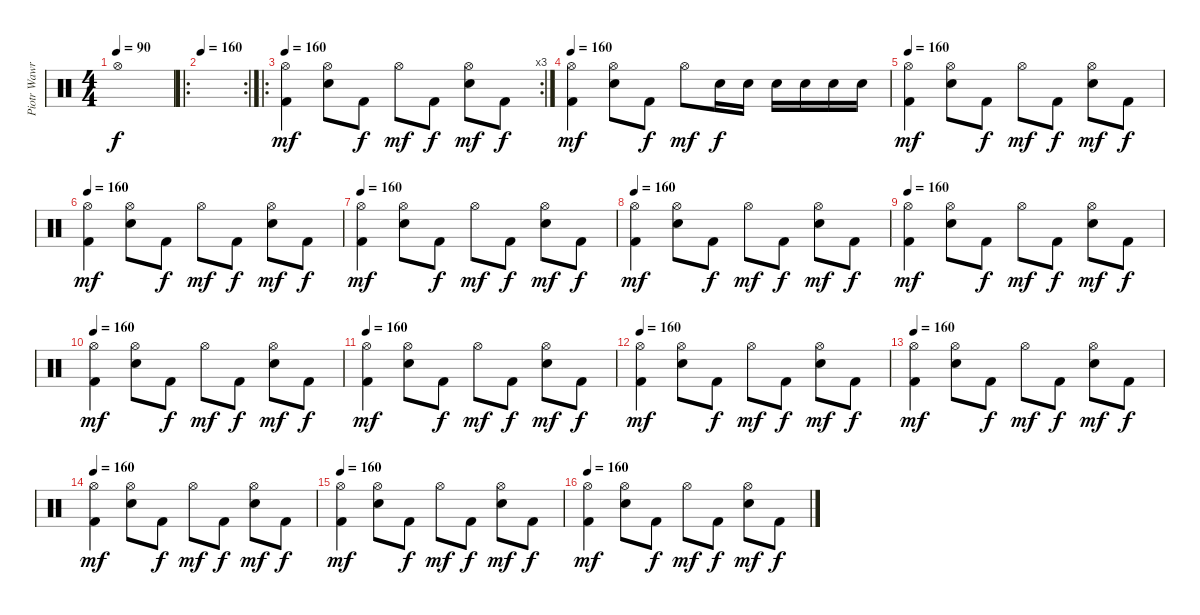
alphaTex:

\track ("Piotr Wawrzeniunk (drums)" "Piotr Wawr") {instrument percussion}
\staff {score}
\articulation defaults
\ts (4 4)
\tempo 90
\clef neutral
\ks c "Hi-Hat (open)".1{dy f}
|
\ro
\rc 2
\tempo 160
|
\ro
\rc 3
\tempo 160
("Kick (hit) 2" "Hi-Hat (open)").4{dy mf} ("Electric Snare (hit)" "Hi-Hat (open)").8 "Kick (hit) 2".8{dy f} "Hi-Hat (open)".8{dy mf} "Kick (hit) 2".8{dy f} ("Electric Snare (hit)" "Hi-Hat (open)").8{dy mf} "Kick (hit) 2".8{dy f} |
\tempo 160
("Kick (hit) 2" "Hi-Hat (open)").4{dy mf} ("Electric Snare (hit)" "Hi-Hat (open)").8 "Kick (hit) 2".8{dy f} "Hi-Hat (open)".8{dy mf} "Electric Snare (hit)".16{dy f} "Electric Snare (hit)".16 "Electric Snare (hit)".16 "Electric Snare (hit)".16 "Electric Snare (hit)".16 "Electric Snare (hit)".16 |
\tempo 160
("Kick (hit) 2" "Hi-Hat (open)").4{dy mf} ("Electric Snare (hit)" "Hi-Hat (open)").8 "Kick (hit) 2".8{dy f} "Hi-Hat (open)".8{dy mf} "Kick (hit) 2".8{dy f} ("Electric Snare (hit)" "Hi-Hat (open)").8{dy mf} "Kick (hit) 2".8{dy f} |
\tempo 160
("Kick (hit) 2" "Hi-Hat (open)").4{dy mf} ("Electric Snare (hit)" "Hi-Hat (open)").8 "Kick (hit) 2".8{dy f} "Hi-Hat (open)".8{dy mf} "Kick (hit) 2".8{dy f} ("Electric Snare (hit)" "Hi-Hat (open)").8{dy mf} "Kick (hit) 2".8{dy f} |
\tempo 160
("Kick (hit) 2" "Hi-Hat (open)").4{dy mf} ("Electric Snare (hit)" "Hi-Hat (open)").8 "Kick (hit) 2".8{dy f} "Hi-Hat (open)".8{dy mf} "Kick (hit) 2".8{dy f} ("Electric Snare (hit)" "Hi-Hat (open)").8{dy mf} "Kick (hit) 2".8{dy f} |
\tempo 160
("Kick (hit) 2" "Hi-Hat (open)").4{dy mf} ("Electric Snare (hit)" "Hi-Hat (open)").8 "Kick (hit) 2".8{dy f} "Hi-Hat (open)".8{dy mf} "Kick (hit) 2".8{dy f} ("Electric Snare (hit)" "Hi-Hat (open)").8{dy mf} "Kick (hit) 2".8{dy f} |
\tempo 160
("Kick (hit) 2" "Hi-Hat (open)").4{dy mf} ("Electric Snare (hit)" "Hi-Hat (open)").8 "Kick (hit) 2".8{dy f} "Hi-Hat (open)".8{dy mf} "Kick (hit) 2".8{dy f} ("Electric Snare (hit)" "Hi-Hat (open)").8{dy mf} "Kick (hit) 2".8{dy f} |
\tempo 160
("Kick (hit) 2" "Hi-Hat (open)").4{dy mf} ("Electric Snare (hit)" "Hi-Hat (open)").8 "Kick (hit) 2".8{dy f} "Hi-Hat (open)".8{dy mf} "Kick (hit) 2".8{dy f} ("Electric Snare (hit)" "Hi-Hat (open)").8{dy mf} "Kick (hit) 2".8{dy f} |
\tempo 160
("Kick (hit) 2" "Hi-Hat (open)").4{dy mf} ("Electric Snare (hit)" "Hi-Hat (open)").8 "Kick (hit) 2".8{dy f} "Hi-Hat (open)".8{dy mf} "Kick (hit) 2".8{dy f} ("Electric Snare (hit)" "Hi-Hat (open)").8{dy mf} "Kick (hit) 2".8{dy f} |
\tempo 160
("Kick (hit) 2" "Hi-Hat (open)").4{dy mf} ("Electric Snare (hit)" "Hi-Hat (open)").8 "Kick (hit) 2".8{dy f} "Hi-Hat (open)".8{dy mf} "Kick (hit) 2".8{dy f} ("Electric Snare (hit)" "Hi-Hat (open)").8{dy mf} "Kick (hit) 2".8{dy f} |
\tempo 160
("Kick (hit) 2" "Hi-Hat (open)").4{dy mf} ("Electric Snare (hit)" "Hi-Hat (open)").8 "Kick (hit) 2".8{dy f} "Hi-Hat (open)".8{dy mf} "Kick (hit) 2".8{dy f} ("Electric Snare (hit)" "Hi-Hat (open)").8{dy mf} "Kick (hit) 2".8{dy f} |
\tempo 160
("Kick (hit) 2" "Hi-Hat (open)").4{dy mf} ("Electric Snare (hit)" "Hi-Hat (open)").8 "Kick (hit) 2".8{dy f} "Hi-Hat (open)".8{dy mf} "Kick (hit) 2".8{dy f} ("Electric Snare (hit)" "Hi-Hat (open)").8{dy mf} "Kick (hit) 2".8{dy f} |
\tempo 160
("Kick (hit) 2" "Hi-Hat (open)").4{dy mf} ("Electric Snare (hit)" "Hi-Hat (open)").8 "Kick (hit) 2".8{dy f} "Hi-Hat (open)".8{dy mf} "Kick (hit) 2".8{dy f} ("Electric Snare (hit)" "Hi-Hat (open)").8{dy mf} "Kick (hit) 2".8{dy f} |
\tempo 160
("Kick (hit) 2" "Hi-Hat (open)").4{dy mf} ("Electric Snare (hit)" "Hi-Hat (open)").8 "Kick (hit) 2".8{dy f} "Hi-Hat (open)".8{dy mf} "Kick (hit) 2".8{dy f} ("Electric Snare (hit)" "Hi-Hat (open)").8{dy mf} "Kick (hit) 2".8{dy f}
